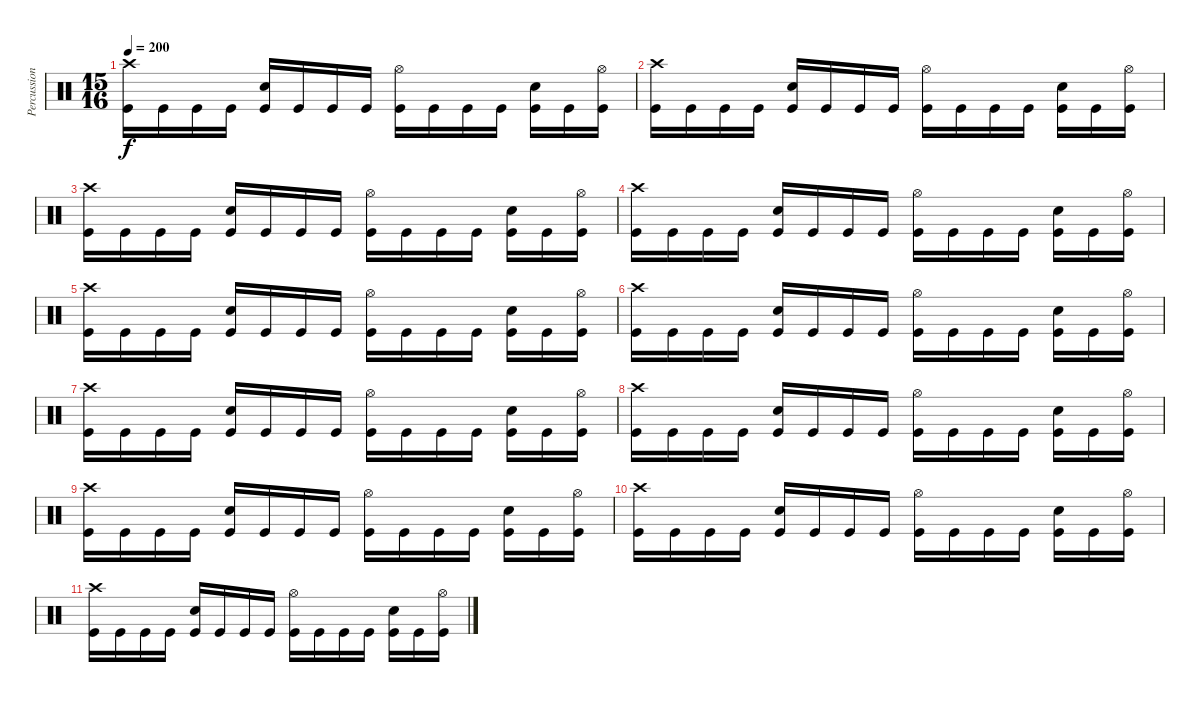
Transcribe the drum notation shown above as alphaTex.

\track ("Percussion" "Percussion") {instrument percussion}
\staff {score}
\articulation defaults
\ts (15 16)
\tempo 200
\clef neutral
\ks c
("Crash high (hit)" "Kick (hit)").16{dy f} "Kick (hit)".16 "Kick (hit)".16 "Kick (hit)".16 ("Snare (hit) 2" "Kick (hit)").16 "Kick (hit)".16 "Kick (hit)".16 "Kick (hit)".16 ("Hi-Hat (open)" "Kick (hit)").16 "Kick (hit)".16 "Kick (hit)".16 "Kick (hit)".16 ("Snare (hit) 2" "Kick (hit)").16 "Kick (hit)".16 ("Hi-Hat (open)" "Kick (hit)").16 |
("Crash high (hit)" "Kick (hit)").16 "Kick (hit)".16 "Kick (hit)".16 "Kick (hit)".16 ("Snare (hit) 2" "Kick (hit)").16 "Kick (hit)".16 "Kick (hit)".16 "Kick (hit)".16 ("Hi-Hat (open)" "Kick (hit)").16 "Kick (hit)".16 "Kick (hit)".16 "Kick (hit)".16 ("Snare (hit) 2" "Kick (hit)").16 "Kick (hit)".16 ("Hi-Hat (open)" "Kick (hit)").16 |
("Crash high (hit)" "Kick (hit)").16 "Kick (hit)".16 "Kick (hit)".16 "Kick (hit)".16 ("Snare (hit) 2" "Kick (hit)").16 "Kick (hit)".16 "Kick (hit)".16 "Kick (hit)".16 ("Hi-Hat (open)" "Kick (hit)").16 "Kick (hit)".16 "Kick (hit)".16 "Kick (hit)".16 ("Snare (hit) 2" "Kick (hit)").16 "Kick (hit)".16 ("Hi-Hat (open)" "Kick (hit)").16 |
("Crash high (hit)" "Kick (hit)").16 "Kick (hit)".16 "Kick (hit)".16 "Kick (hit)".16 ("Snare (hit) 2" "Kick (hit)").16 "Kick (hit)".16 "Kick (hit)".16 "Kick (hit)".16 ("Hi-Hat (open)" "Kick (hit)").16 "Kick (hit)".16 "Kick (hit)".16 "Kick (hit)".16 ("Snare (hit) 2" "Kick (hit)").16 "Kick (hit)".16 ("Hi-Hat (open)" "Kick (hit)").16 |
("Crash high (hit)" "Kick (hit)").16 "Kick (hit)".16 "Kick (hit)".16 "Kick (hit)".16 ("Snare (hit) 2" "Kick (hit)").16 "Kick (hit)".16 "Kick (hit)".16 "Kick (hit)".16 ("Hi-Hat (open)" "Kick (hit)").16 "Kick (hit)".16 "Kick (hit)".16 "Kick (hit)".16 ("Snare (hit) 2" "Kick (hit)").16 "Kick (hit)".16 ("Hi-Hat (open)" "Kick (hit)").16 |
("Crash high (hit)" "Kick (hit)").16 "Kick (hit)".16 "Kick (hit)".16 "Kick (hit)".16 ("Snare (hit) 2" "Kick (hit)").16 "Kick (hit)".16 "Kick (hit)".16 "Kick (hit)".16 ("Hi-Hat (open)" "Kick (hit)").16 "Kick (hit)".16 "Kick (hit)".16 "Kick (hit)".16 ("Snare (hit) 2" "Kick (hit)").16 "Kick (hit)".16 ("Hi-Hat (open)" "Kick (hit)").16 |
("Crash high (hit)" "Kick (hit)").16 "Kick (hit)".16 "Kick (hit)".16 "Kick (hit)".16 ("Snare (hit) 2" "Kick (hit)").16 "Kick (hit)".16 "Kick (hit)".16 "Kick (hit)".16 ("Hi-Hat (open)" "Kick (hit)").16 "Kick (hit)".16 "Kick (hit)".16 "Kick (hit)".16 ("Snare (hit) 2" "Kick (hit)").16 "Kick (hit)".16 ("Hi-Hat (open)" "Kick (hit)").16 |
("Crash high (hit)" "Kick (hit)").16 "Kick (hit)".16 "Kick (hit)".16 "Kick (hit)".16 ("Snare (hit) 2" "Kick (hit)").16 "Kick (hit)".16 "Kick (hit)".16 "Kick (hit)".16 ("Hi-Hat (open)" "Kick (hit)").16 "Kick (hit)".16 "Kick (hit)".16 "Kick (hit)".16 ("Snare (hit) 2" "Kick (hit)").16 "Kick (hit)".16 ("Hi-Hat (open)" "Kick (hit)").16 |
("Crash high (hit)" "Kick (hit)").16 "Kick (hit)".16 "Kick (hit)".16 "Kick (hit)".16 ("Snare (hit) 2" "Kick (hit)").16 "Kick (hit)".16 "Kick (hit)".16 "Kick (hit)".16 ("Hi-Hat (open)" "Kick (hit)").16 "Kick (hit)".16 "Kick (hit)".16 "Kick (hit)".16 ("Snare (hit) 2" "Kick (hit)").16 "Kick (hit)".16 ("Hi-Hat (open)" "Kick (hit)").16 |
("Crash high (hit)" "Kick (hit)").16 "Kick (hit)".16 "Kick (hit)".16 "Kick (hit)".16 ("Snare (hit) 2" "Kick (hit)").16 "Kick (hit)".16 "Kick (hit)".16 "Kick (hit)".16 ("Hi-Hat (open)" "Kick (hit)").16 "Kick (hit)".16 "Kick (hit)".16 "Kick (hit)".16 ("Snare (hit) 2" "Kick (hit)").16 "Kick (hit)".16 ("Hi-Hat (open)" "Kick (hit)").16 |
("Crash high (hit)" "Kick (hit)").16 "Kick (hit)".16 "Kick (hit)".16 "Kick (hit)".16 ("Snare (hit) 2" "Kick (hit)").16 "Kick (hit)".16 "Kick (hit)".16 "Kick (hit)".16 ("Hi-Hat (open)" "Kick (hit)").16 "Kick (hit)".16 "Kick (hit)".16 "Kick (hit)".16 ("Snare (hit) 2" "Kick (hit)").16 "Kick (hit)".16 ("Hi-Hat (open)" "Kick (hit)").16
